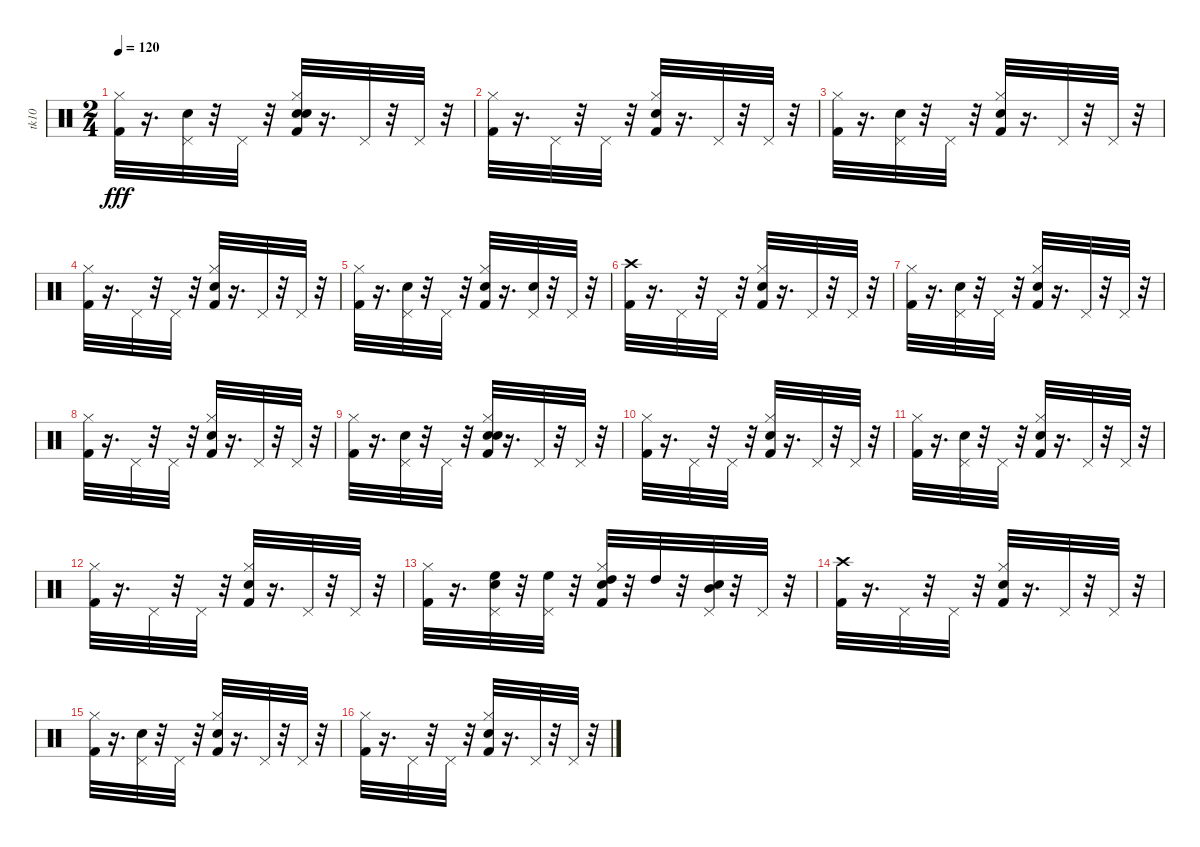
\track ("tk10" "tk10") {instrument percussion}
\staff {score}
\articulation defaults
\ts (2 4)
\tempo 120
\clef neutral
\ks c
("Kick (hit) 2" "Hi-Hat (closed)").32{dy fff} r.16{d} ("Hand Clap (hit)" "Pedal Hi-Hat (hit)").32 r.32 "Pedal Hi-Hat (hit)".32 r.32 ("Snare (hit) 2" "Kick (hit) 2" "Hand Clap (hit)" "Hi-Hat (closed)").32 r.16{d} "Pedal Hi-Hat (hit)".32 r.32 "Pedal Hi-Hat (hit)".32 r.32 |
("Kick (hit) 2" "Hi-Hat (closed)").32 r.16{d} "Pedal Hi-Hat (hit)".32 r.32 "Pedal Hi-Hat (hit)".32 r.32 ("Kick (hit) 2" "Snare (hit) 2" "Hi-Hat (closed)").32 r.16{d} "Pedal Hi-Hat (hit)".32 r.32 "Pedal Hi-Hat (hit)".32 r.32 |
("Kick (hit) 2" "Hi-Hat (closed)").32 r.16{d} ("Hand Clap (hit)" "Pedal Hi-Hat (hit)").32 r.32 "Pedal Hi-Hat (hit)".32 r.32 ("Kick (hit) 2" "Snare (hit) 2" "Hi-Hat (closed)").32 r.16{d} "Pedal Hi-Hat (hit)".32 r.32 "Pedal Hi-Hat (hit)".32 r.32 |
("Kick (hit) 2" "Hi-Hat (closed)").32 r.16{d} "Pedal Hi-Hat (hit)".32 r.32 "Pedal Hi-Hat (hit)".32 r.32 ("Snare (hit) 2" "Kick (hit) 2" "Hi-Hat (closed)").32 r.16{d} "Pedal Hi-Hat (hit)".32 r.32 "Pedal Hi-Hat (hit)".32 r.32 |
("Kick (hit) 2" "Hi-Hat (closed)").32 r.16{d} ("Hand Clap (hit)" "Pedal Hi-Hat (hit)").32 r.32 "Pedal Hi-Hat (hit)".32 r.32 ("Snare (hit) 2" "Kick (hit) 2" "Hi-Hat (closed)").32 r.16{d} ("Hand Clap (hit)" "Pedal Hi-Hat (hit)").32 r.32 "Pedal Hi-Hat (hit)".32 r.32 |
("Kick (hit) 2" "Crash high (hit)").32 r.16{d} "Pedal Hi-Hat (hit)".32 r.32 "Pedal Hi-Hat (hit)".32 r.32 ("Snare (hit) 2" "Kick (hit) 2" "Hi-Hat (closed)").32 r.16{d} "Pedal Hi-Hat (hit)".32 r.32 "Pedal Hi-Hat (hit)".32 r.32 |
("Kick (hit) 2" "Hi-Hat (closed)").32 r.16{d} ("Pedal Hi-Hat (hit)" "Hand Clap (hit)").32 r.32 "Pedal Hi-Hat (hit)".32 r.32 ("Snare (hit) 2" "Kick (hit) 2" "Hi-Hat (closed)").32 r.16{d} "Pedal Hi-Hat (hit)".32 r.32 "Pedal Hi-Hat (hit)".32 r.32 |
("Kick (hit) 2" "Hi-Hat (closed)").32 r.16{d} "Pedal Hi-Hat (hit)".32 r.32 "Pedal Hi-Hat (hit)".32 r.32 ("Snare (hit) 2" "Kick (hit) 2" "Hi-Hat (closed)").32 r.16{d} "Pedal Hi-Hat (hit)".32 r.32 "Pedal Hi-Hat (hit)".32 r.32 |
("Kick (hit) 2" "Hi-Hat (closed)").32 r.16{d} ("Hand Clap (hit)" "Pedal Hi-Hat (hit)").32 r.32 "Pedal Hi-Hat (hit)".32 r.32 ("Snare (hit) 2" "Kick (hit) 2" "Hand Clap (hit)" "Hi-Hat (closed)").32 r.16{d} "Pedal Hi-Hat (hit)".32 r.32 "Pedal Hi-Hat (hit)".32 r.32 |
("Kick (hit) 2" "Hi-Hat (closed)").32 r.16{d} "Pedal Hi-Hat (hit)".32 r.32 "Pedal Hi-Hat (hit)".32 r.32 ("Kick (hit) 2" "Snare (hit) 2" "Hi-Hat (closed)").32 r.16{d} "Pedal Hi-Hat (hit)".32 r.32 "Pedal Hi-Hat (hit)".32 r.32 |
("Kick (hit) 2" "Hi-Hat (closed)").32 r.16{d} ("Hand Clap (hit)" "Pedal Hi-Hat (hit)").32 r.32 "Pedal Hi-Hat (hit)".32 r.32 ("Kick (hit) 2" "Snare (hit) 2" "Hi-Hat (closed)").32 r.16{d} "Pedal Hi-Hat (hit)".32 r.32 "Pedal Hi-Hat (hit)".32 r.32 |
("Kick (hit) 2" "Hi-Hat (closed)").32 r.16{d} "Pedal Hi-Hat (hit)".32 r.32 "Pedal Hi-Hat (hit)".32 r.32 ("Snare (hit) 2" "Kick (hit) 2" "Hi-Hat (closed)").32 r.16{d} "Pedal Hi-Hat (hit)".32 r.32 "Pedal Hi-Hat (hit)".32 r.32 |
("Kick (hit) 2" "Hi-Hat (closed)").32 r.16{d} ("Hand Clap (hit)" "High Floor Tom (hit)" "Pedal Hi-Hat (hit)").32 r.32 ("High Floor Tom (hit)" "Pedal Hi-Hat (hit)").32 r.32 ("Snare (hit) 2" "Kick (hit) 2" "High Tom (hit)" "Hi-Hat (closed)").32 r.32 "High Tom (hit)".32 r.32 ("Hand Clap (hit)" "Mid Tom (hit)" "Pedal Hi-Hat (hit)").32 r.32 "Pedal Hi-Hat (hit)".32 r.32 |
("Kick (hit) 2" "Crash high (hit)").32 r.16{d} "Pedal Hi-Hat (hit)".32 r.32 "Pedal Hi-Hat (hit)".32 r.32 ("Snare (hit) 2" "Kick (hit) 2" "Hi-Hat (closed)").32 r.16{d} "Pedal Hi-Hat (hit)".32 r.32 "Pedal Hi-Hat (hit)".32 r.32 |
("Kick (hit) 2" "Hi-Hat (closed)").32 r.16{d} ("Pedal Hi-Hat (hit)" "Hand Clap (hit)").32 r.32 "Pedal Hi-Hat (hit)".32 r.32 ("Snare (hit) 2" "Kick (hit) 2" "Hi-Hat (closed)").32 r.16{d} "Pedal Hi-Hat (hit)".32 r.32 "Pedal Hi-Hat (hit)".32 r.32 |
("Kick (hit) 2" "Hi-Hat (closed)").32 r.16{d} "Pedal Hi-Hat (hit)".32 r.32 "Pedal Hi-Hat (hit)".32 r.32 ("Snare (hit) 2" "Kick (hit) 2" "Hi-Hat (closed)").32 r.16{d} "Pedal Hi-Hat (hit)".32 r.32 "Pedal Hi-Hat (hit)".32 r.32
